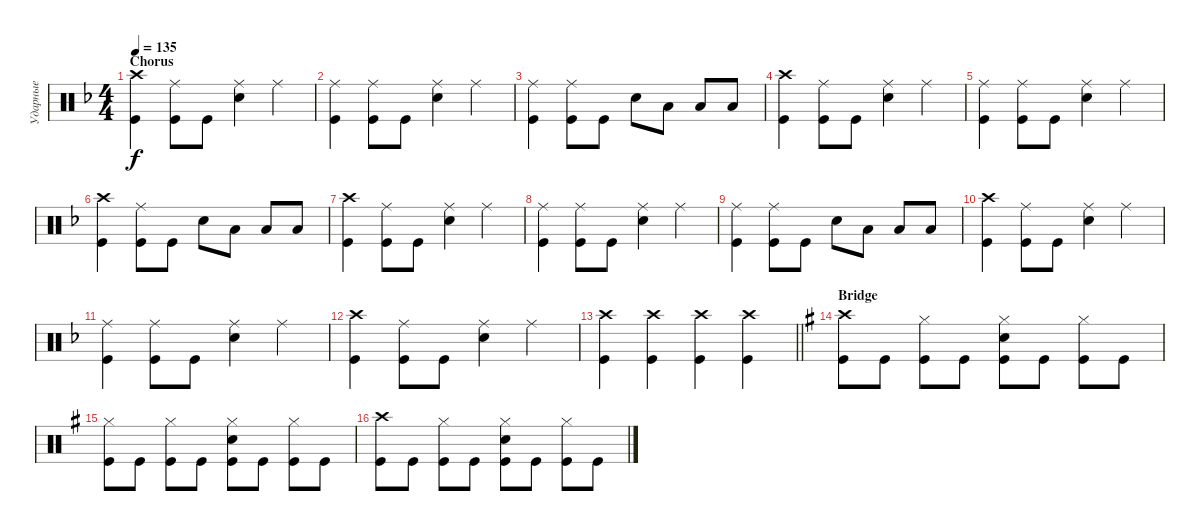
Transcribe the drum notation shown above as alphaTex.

\track ("Ударные" "Ударные") {instrument percussion}
\staff {score}
\articulation defaults
\ts (4 4)
\section ("" "Chorus")
\tempo 135
\clef neutral
\ks dminor
("Kick (hit)" "Crash high (hit)").4{dy f} ("Kick (hit)" "Ride (middle)").8 "Kick (hit)".8 ("Snare (hit) 2" "Ride (middle)").4 "Ride (middle)".4 |
("Kick (hit)" "Ride (middle)").4 ("Kick (hit)" "Ride (middle)").8 "Kick (hit)".8 ("Snare (hit) 2" "Ride (middle)").4 "Ride (middle)".4 |
("Kick (hit)" "Ride (middle)").4 ("Kick (hit)" "Ride (middle)").8 "Kick (hit)".8 "Snare (hit) 2".8 "Low Tom (hit)".8 "Low Tom (hit)".8 "Low Tom (hit)".8 |
("Kick (hit)" "Crash high (hit)").4 ("Kick (hit)" "Ride (middle)").8 "Kick (hit)".8 ("Snare (hit) 2" "Ride (middle)").4 "Ride (middle)".4 |
("Kick (hit)" "Ride (middle)").4 ("Kick (hit)" "Ride (middle)").8 "Kick (hit)".8 ("Snare (hit) 2" "Ride (middle)").4 "Ride (middle)".4 |
("Kick (hit)" "Crash high (hit)").4 ("Kick (hit)" "Ride (middle)").8 "Kick (hit)".8 "Snare (hit) 2".8 "Low Tom (hit)".8 "Low Tom (hit)".8 "Low Tom (hit)".8 |
("Kick (hit)" "Crash high (hit)").4 ("Kick (hit)" "Ride (middle)").8 "Kick (hit)".8 ("Snare (hit) 2" "Ride (middle)").4 "Ride (middle)".4 |
("Kick (hit)" "Ride (middle)").4 ("Kick (hit)" "Ride (middle)").8 "Kick (hit)".8 ("Snare (hit) 2" "Ride (middle)").4 "Ride (middle)".4 |
("Kick (hit)" "Ride (middle)").4 ("Kick (hit)" "Ride (middle)").8 "Kick (hit)".8 "Snare (hit) 2".8 "Low Tom (hit)".8 "Low Tom (hit)".8 "Low Tom (hit)".8 |
("Kick (hit)" "Crash high (hit)").4 ("Kick (hit)" "Ride (middle)").8 "Kick (hit)".8 ("Snare (hit) 2" "Ride (middle)").4 "Ride (middle)".4 |
("Kick (hit)" "Ride (middle)").4 ("Kick (hit)" "Ride (middle)").8 "Kick (hit)".8 ("Snare (hit) 2" "Ride (middle)").4 "Ride (middle)".4 |
("Kick (hit)" "Crash high (hit)").4 ("Kick (hit)" "Ride (middle)").8 "Kick (hit)".8 ("Snare (hit) 2" "Ride (middle)").4 "Ride (middle)".4 |
\barLineRight lightlight
("Kick (hit)" "Crash high (hit)").4 ("Kick (hit)" "Crash high (hit)").4 ("Kick (hit)" "Crash high (hit)").4 ("Kick (hit)" "Crash high (hit)").4 |
\section ("" "Bridge")
\ks eminor
("Kick (hit)" "Crash high (hit)").8 "Kick (hit)".8 ("Kick (hit)" "Hi-Hat (closed)").8 "Kick (hit)".8 ("Kick (hit)" "Snare (hit) 2" "Hi-Hat (closed)").8 "Kick (hit)".8 ("Kick (hit)" "Hi-Hat (closed)").8 "Kick (hit)".8 |
("Kick (hit)" "Hi-Hat (closed)").8 "Kick (hit)".8 ("Kick (hit)" "Hi-Hat (closed)").8 "Kick (hit)".8 ("Kick (hit)" "Snare (hit) 2" "Hi-Hat (closed)").8 "Kick (hit)".8 ("Kick (hit)" "Hi-Hat (closed)").8 "Kick (hit)".8 |
("Kick (hit)" "Crash high (hit)").8 "Kick (hit)".8 ("Kick (hit)" "Hi-Hat (closed)").8 "Kick (hit)".8 ("Kick (hit)" "Snare (hit) 2" "Hi-Hat (closed)").8 "Kick (hit)".8 ("Kick (hit)" "Hi-Hat (closed)").8 "Kick (hit)".8
